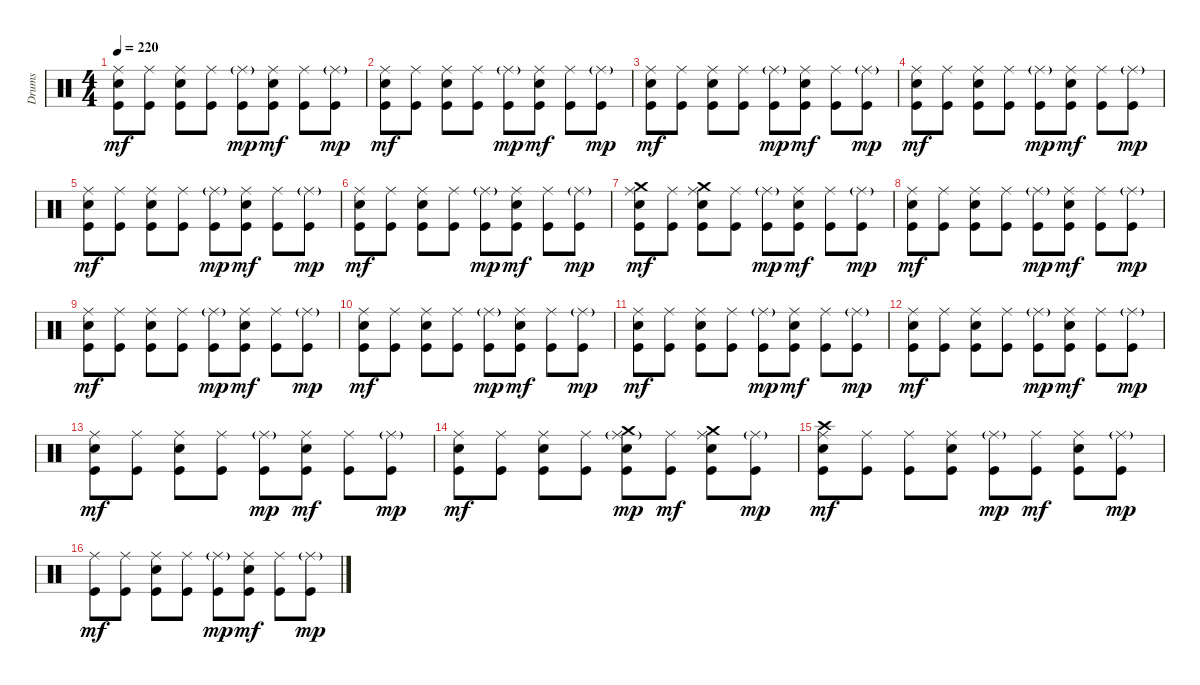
\track ("Drums" "Drums") {instrument percussion}
\staff {score}
\articulation defaults
\ts (4 4)
\tempo 220
\clef neutral
\ks c
("Ride (middle)" "Electric Snare (hit)" "Kick (hit)").8{dy mf} ("Ride (middle)" "Kick (hit)").8 ("Ride (middle)" "Electric Snare (hit)" "Kick (hit)").8 ("Ride (middle)" "Kick (hit)").8 ("Ride (middle)"{g} "Kick (hit)").8{dy mp} ("Ride (middle)" "Electric Snare (hit)" "Kick (hit)").8{dy mf} ("Ride (middle)" "Kick (hit)").8 ("Ride (middle)"{g} "Kick (hit)").8{dy mp} |
("Ride (middle)" "Electric Snare (hit)" "Kick (hit)").8{dy mf} ("Ride (middle)" "Kick (hit)").8 ("Ride (middle)" "Electric Snare (hit)" "Kick (hit)").8 ("Ride (middle)" "Kick (hit)").8 ("Ride (middle)"{g} "Kick (hit)").8{dy mp} ("Ride (middle)" "Electric Snare (hit)" "Kick (hit)").8{dy mf} ("Ride (middle)" "Kick (hit)").8 ("Ride (middle)"{g} "Kick (hit)").8{dy mp} |
("Ride (middle)" "Electric Snare (hit)" "Kick (hit)").8{dy mf} ("Ride (middle)" "Kick (hit)").8 ("Ride (middle)" "Electric Snare (hit)" "Kick (hit)").8 ("Ride (middle)" "Kick (hit)").8 ("Ride (middle)"{g} "Kick (hit)").8{dy mp} ("Ride (middle)" "Electric Snare (hit)" "Kick (hit)").8{dy mf} ("Ride (middle)" "Kick (hit)").8 ("Ride (middle)"{g} "Kick (hit)").8{dy mp} |
("Ride (middle)" "Electric Snare (hit)" "Kick (hit)").8{dy mf} ("Ride (middle)" "Kick (hit)").8 ("Ride (middle)" "Electric Snare (hit)" "Kick (hit)").8 ("Ride (middle)" "Kick (hit)").8 ("Ride (middle)"{g} "Kick (hit)").8{dy mp} ("Ride (middle)" "Electric Snare (hit)" "Kick (hit)").8{dy mf} ("Ride (middle)" "Kick (hit)").8 ("Ride (middle)"{g} "Kick (hit)").8{dy mp} |
("Ride (middle)" "Electric Snare (hit)" "Kick (hit)").8{dy mf} ("Ride (middle)" "Kick (hit)").8 ("Ride (middle)" "Electric Snare (hit)" "Kick (hit)").8 ("Ride (middle)" "Kick (hit)").8 ("Ride (middle)"{g} "Kick (hit)").8{dy mp} ("Ride (middle)" "Electric Snare (hit)" "Kick (hit)").8{dy mf} ("Ride (middle)" "Kick (hit)").8 ("Ride (middle)"{g} "Kick (hit)").8{dy mp} |
("Ride (middle)" "Electric Snare (hit)" "Kick (hit)").8{dy mf} ("Ride (middle)" "Kick (hit)").8 ("Ride (middle)" "Electric Snare (hit)" "Kick (hit)").8 ("Ride (middle)" "Kick (hit)").8 ("Ride (middle)"{g} "Kick (hit)").8{dy mp} ("Ride (middle)" "Electric Snare (hit)" "Kick (hit)").8{dy mf} ("Ride (middle)" "Kick (hit)").8 ("Ride (middle)"{g} "Kick (hit)").8{dy mp} |
("Crash medium (hit)" "Ride (middle)" "Electric Snare (hit)" "Kick (hit)").8{dy mf} ("Ride (middle)" "Kick (hit)").8 ("Crash medium (hit)" "Ride (middle)" "Electric Snare (hit)" "Kick (hit)").8 ("Ride (middle)" "Kick (hit)").8 ("Ride (middle)"{g} "Kick (hit)").8{dy mp} ("Ride (middle)" "Electric Snare (hit)" "Kick (hit)").8{dy mf} ("Ride (middle)" "Kick (hit)").8 ("Ride (middle)"{g} "Kick (hit)").8{dy mp} |
("Ride (middle)" "Electric Snare (hit)" "Kick (hit)").8{dy mf} ("Ride (middle)" "Kick (hit)").8 ("Ride (middle)" "Electric Snare (hit)" "Kick (hit)").8 ("Ride (middle)" "Kick (hit)").8 ("Ride (middle)"{g} "Kick (hit)").8{dy mp} ("Ride (middle)" "Electric Snare (hit)" "Kick (hit)").8{dy mf} ("Ride (middle)" "Kick (hit)").8 ("Ride (middle)"{g} "Kick (hit)").8{dy mp} |
("Ride (middle)" "Electric Snare (hit)" "Kick (hit)").8{dy mf} ("Ride (middle)" "Kick (hit)").8 ("Ride (middle)" "Electric Snare (hit)" "Kick (hit)").8 ("Ride (middle)" "Kick (hit)").8 ("Ride (middle)"{g} "Kick (hit)").8{dy mp} ("Ride (middle)" "Electric Snare (hit)" "Kick (hit)").8{dy mf} ("Ride (middle)" "Kick (hit)").8 ("Ride (middle)"{g} "Kick (hit)").8{dy mp} |
("Ride (middle)" "Electric Snare (hit)" "Kick (hit)").8{dy mf} ("Ride (middle)" "Kick (hit)").8 ("Ride (middle)" "Electric Snare (hit)" "Kick (hit)").8 ("Ride (middle)" "Kick (hit)").8 ("Ride (middle)"{g} "Kick (hit)").8{dy mp} ("Ride (middle)" "Electric Snare (hit)" "Kick (hit)").8{dy mf} ("Ride (middle)" "Kick (hit)").8 ("Ride (middle)"{g} "Kick (hit)").8{dy mp} |
("Ride (middle)" "Electric Snare (hit)" "Kick (hit)").8{dy mf} ("Ride (middle)" "Kick (hit)").8 ("Ride (middle)" "Electric Snare (hit)" "Kick (hit)").8 ("Ride (middle)" "Kick (hit)").8 ("Ride (middle)"{g} "Kick (hit)").8{dy mp} ("Ride (middle)" "Electric Snare (hit)" "Kick (hit)").8{dy mf} ("Ride (middle)" "Kick (hit)").8 ("Ride (middle)"{g} "Kick (hit)").8{dy mp} |
("Ride (middle)" "Electric Snare (hit)" "Kick (hit)").8{dy mf} ("Ride (middle)" "Kick (hit)").8 ("Ride (middle)" "Electric Snare (hit)" "Kick (hit)").8 ("Ride (middle)" "Kick (hit)").8 ("Ride (middle)"{g} "Kick (hit)").8{dy mp} ("Ride (middle)" "Electric Snare (hit)" "Kick (hit)").8{dy mf} ("Ride (middle)" "Kick (hit)").8 ("Ride (middle)"{g} "Kick (hit)").8{dy mp} |
("Ride (middle)" "Electric Snare (hit)" "Kick (hit)").8{dy mf} ("Ride (middle)" "Kick (hit)").8 ("Ride (middle)" "Electric Snare (hit)" "Kick (hit)").8 ("Ride (middle)" "Kick (hit)").8 ("Ride (middle)"{g} "Kick (hit)").8{dy mp} ("Ride (middle)" "Electric Snare (hit)" "Kick (hit)").8{dy mf} ("Ride (middle)" "Kick (hit)").8 ("Ride (middle)"{g} "Kick (hit)").8{dy mp} |
("Ride (middle)" "Electric Snare (hit)" "Kick (hit)").8{dy mf} ("Ride (middle)" "Kick (hit)").8 ("Ride (middle)" "Electric Snare (hit)" "Kick (hit)").8 ("Ride (middle)" "Kick (hit)").8 ("Crash medium (hit)" "Ride (middle)"{g} "Electric Snare (hit)" "Kick (hit)").8{dy mp} ("Ride (middle)" "Kick (hit)").8{dy mf} ("Crash medium (hit)" "Ride (middle)" "Electric Snare (hit)" "Kick (hit)").8 ("Ride (middle)"{g} "Kick (hit)").8{dy mp} |
("Crash high (hit)" "Ride (middle)" "Electric Snare (hit)" "Kick (hit)").8{dy mf} ("Ride (middle)" "Kick (hit)").8 ("Ride (middle)" "Kick (hit)").8 ("Ride (middle)" "Electric Snare (hit)" "Kick (hit)").8 ("Ride (middle)"{g} "Kick (hit)").8{dy mp} ("Ride (middle)" "Kick (hit)").8{dy mf} ("Ride (middle)" "Electric Snare (hit)" "Kick (hit)").8 ("Ride (middle)"{g} "Kick (hit)").8{dy mp} |
("Ride (middle)" "Kick (hit)").8{dy mf} ("Ride (middle)" "Kick (hit)").8 ("Ride (middle)" "Electric Snare (hit)" "Kick (hit)").8 ("Ride (middle)" "Kick (hit)").8 ("Ride (middle)"{g} "Kick (hit)").8{dy mp} ("Ride (middle)" "Electric Snare (hit)" "Kick (hit)").8{dy mf} ("Ride (middle)" "Kick (hit)").8 ("Ride (middle)"{g} "Kick (hit)").8{dy mp}
